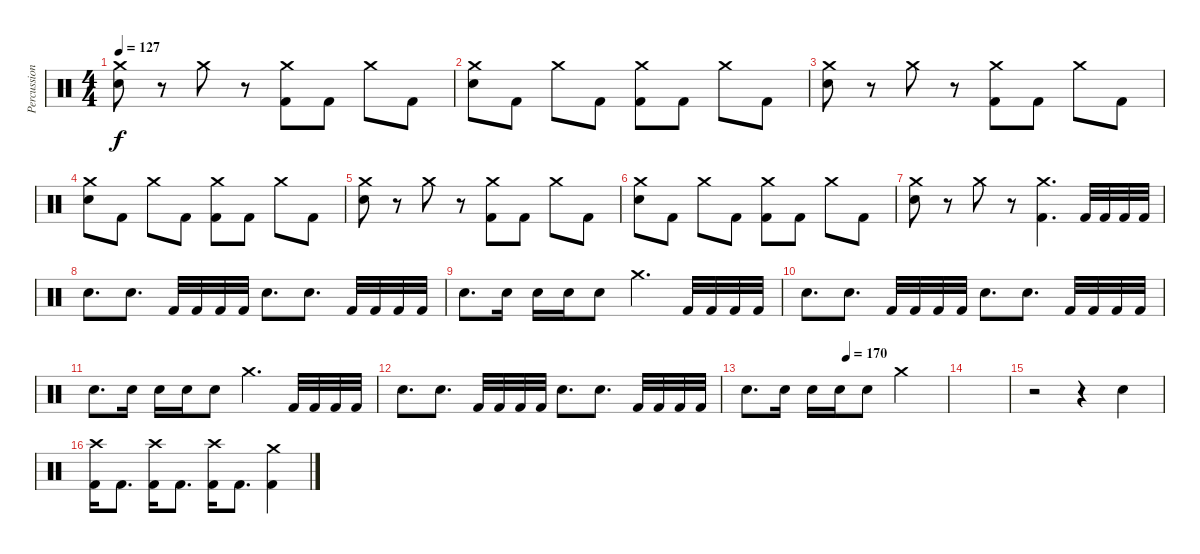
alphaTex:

\track ("Percussion" "Percussion") {instrument percussion}
\staff {score}
\articulation defaults
\ts (4 4)
\tempo 127
\clef neutral
\ks c
("Crash medium (hit)" "Electric Snare (hit)").8{dy f} r.8 "Crash medium (hit)".8 r.8 ("Crash medium (hit)" "Kick (hit) 2").8 "Kick (hit) 2".8 "Crash medium (hit)".8 "Kick (hit) 2".8 |
("Crash medium (hit)" "Electric Snare (hit)").8 "Kick (hit) 2".8 "Crash medium (hit)".8 "Kick (hit) 2".8 ("Crash medium (hit)" "Kick (hit) 2").8 "Kick (hit) 2".8 "Crash medium (hit)".8 "Kick (hit) 2".8 |
("Crash medium (hit)" "Electric Snare (hit)").8 r.8 "Crash medium (hit)".8 r.8 ("Crash medium (hit)" "Kick (hit) 2").8 "Kick (hit) 2".8 "Crash medium (hit)".8 "Kick (hit) 2".8 |
("Crash medium (hit)" "Electric Snare (hit)").8 "Kick (hit) 2".8 "Crash medium (hit)".8 "Kick (hit) 2".8 ("Crash medium (hit)" "Kick (hit) 2").8 "Kick (hit) 2".8 "Crash medium (hit)".8 "Kick (hit) 2".8 |
("Crash medium (hit)" "Electric Snare (hit)").8 r.8 "Crash medium (hit)".8 r.8 ("Crash medium (hit)" "Kick (hit) 2").8 "Kick (hit) 2".8 "Crash medium (hit)".8 "Kick (hit) 2".8 |
("Crash medium (hit)" "Electric Snare (hit)").8 "Kick (hit) 2".8 "Crash medium (hit)".8 "Kick (hit) 2".8 ("Crash medium (hit)" "Kick (hit) 2").8 "Kick (hit) 2".8 "Crash medium (hit)".8 "Kick (hit) 2".8 |
("Crash medium (hit)" "Electric Snare (hit)").8 r.8 "Crash medium (hit)".8 r.8 ("Crash medium (hit)" "Kick (hit) 2").4{d} "Kick (hit) 2".32 "Kick (hit) 2".32 "Kick (hit) 2".32 "Kick (hit) 2".32 |
"Electric Snare (hit)".8{d} "Electric Snare (hit)".8{d} "Kick (hit) 2".32 "Kick (hit) 2".32 "Kick (hit) 2".32 "Kick (hit) 2".32 "Electric Snare (hit)".8{d} "Electric Snare (hit)".8{d} "Kick (hit) 2".32 "Kick (hit) 2".32 "Kick (hit) 2".32 "Kick (hit) 2".32 |
"Electric Snare (hit)".8{d} "Electric Snare (hit)".16 "Electric Snare (hit)".16 "Electric Snare (hit)".16 "Electric Snare (hit)".8 "Crash medium (hit)".4{d} "Kick (hit) 2".32 "Kick (hit) 2".32 "Kick (hit) 2".32 "Kick (hit) 2".32 |
"Electric Snare (hit)".8{d} "Electric Snare (hit)".8{d} "Kick (hit) 2".32 "Kick (hit) 2".32 "Kick (hit) 2".32 "Kick (hit) 2".32 "Electric Snare (hit)".8{d} "Electric Snare (hit)".8{d} "Kick (hit) 2".32 "Kick (hit) 2".32 "Kick (hit) 2".32 "Kick (hit) 2".32 |
"Electric Snare (hit)".8{d} "Electric Snare (hit)".16 "Electric Snare (hit)".16 "Electric Snare (hit)".16 "Electric Snare (hit)".8 "Crash medium (hit)".4{d} "Kick (hit) 2".32 "Kick (hit) 2".32 "Kick (hit) 2".32 "Kick (hit) 2".32 |
"Electric Snare (hit)".8{d} "Electric Snare (hit)".8{d} "Kick (hit) 2".32 "Kick (hit) 2".32 "Kick (hit) 2".32 "Kick (hit) 2".32 "Electric Snare (hit)".8{d} "Electric Snare (hit)".8{d} "Kick (hit) 2".32 "Kick (hit) 2".32 "Kick (hit) 2".32 "Kick (hit) 2".32 |
\tempo (170 0.5)
"Electric Snare (hit)".8{d} "Electric Snare (hit)".16 "Electric Snare (hit)".16 "Electric Snare (hit)".16 "Electric Snare (hit)".8 "Crash medium (hit)".2 |
|
r.2 r.4 "Electric Snare (hit)".4 |
("Crash high (hit)" "Kick (hit) 2").16 "Kick (hit) 2".8{d} ("Crash high (hit)" "Kick (hit) 2").16 "Kick (hit) 2".8{d} ("Crash high (hit)" "Kick (hit) 2").16 "Kick (hit) 2".8{d} ("Crash medium (hit)" "Kick (hit) 2").4
